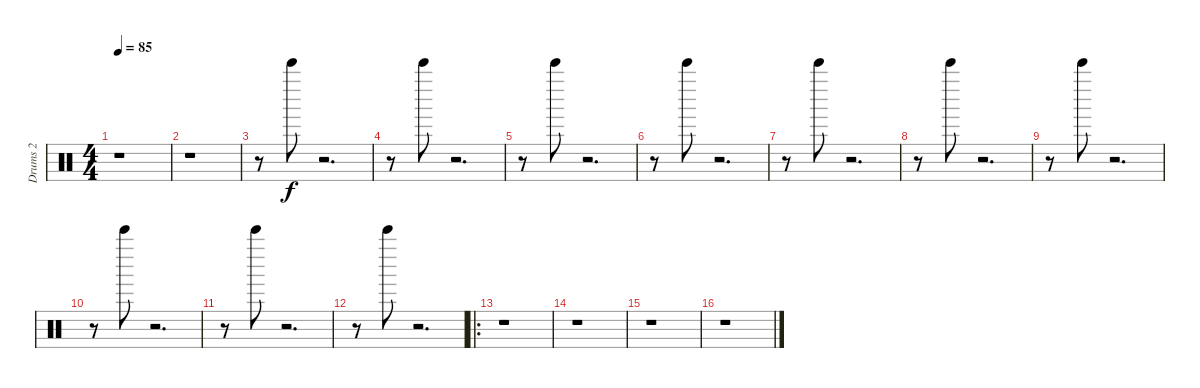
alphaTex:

\track ("Drums 2" "Drums 2") {instrument percussion}
\staff {score}
\articulation defaults
\ts (4 4)
\tempo 85
\clef neutral
\ks c
r.1{dy f} |
r.1 |
r.8 "Bell Tree (hit)".8 r.2{d} |
r.8 "Bell Tree (hit)".8 r.2{d} |
r.8 "Bell Tree (hit)".8 r.2{d} |
r.8 "Bell Tree (hit)".8 r.2{d} |
r.8 "Bell Tree (hit)".8 r.2{d} |
r.8 "Bell Tree (hit)".8 r.2{d} |
r.8 "Bell Tree (hit)".8 r.2{d} |
r.8 "Bell Tree (hit)".8 r.2{d} |
r.8 "Bell Tree (hit)".8 r.2{d} |
r.8 "Bell Tree (hit)".8 r.2{d} |
\ro
r.1 |
r.1 |
r.1 |
r.1
